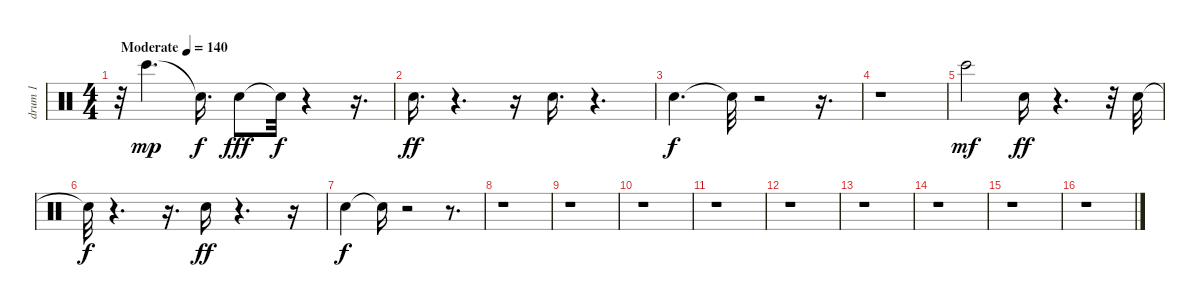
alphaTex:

\track ("drum 1" "drum 1") {instrument percussion}
\staff {score}
\articulation defaults
\ts (4 4)
\tempo (140 "Moderate")
\clef neutral
\ks c
r.32{dy mp} "Bongo High (hit)".4{d} "Snare (hit)"{t}.16{d dy f} "Snare (hit)".8{dy fff} "Snare (hit)"{t}.32{dy f} r.4 r.16{d} |
"Snare (hit)".16{d dy ff} r.4{d} r.16 "Snare (hit)".16{d} r.4{d} |
"Snare (hit)".4{d dy f} "Snare (hit)"{t}.32 r.2 r.16{d} |
r.1 |
"Bongo High (hit)".2{dy mf} "Snare (hit)".16{dy ff} r.4{d} r.32 "Snare (hit)".32 |
"Snare (hit)"{t}.32{dy f} r.4{d} r.16{d} "Snare (hit)".16{dy ff} r.4{d} r.16 |
"Snare (hit)".4{dy f} "Snare (hit)"{t}.16 r.2 r.8{d} |
r.1 |
r.1 |
r.1 |
r.1 |
r.1 |
r.1 |
r.1 |
r.1 |
r.1
